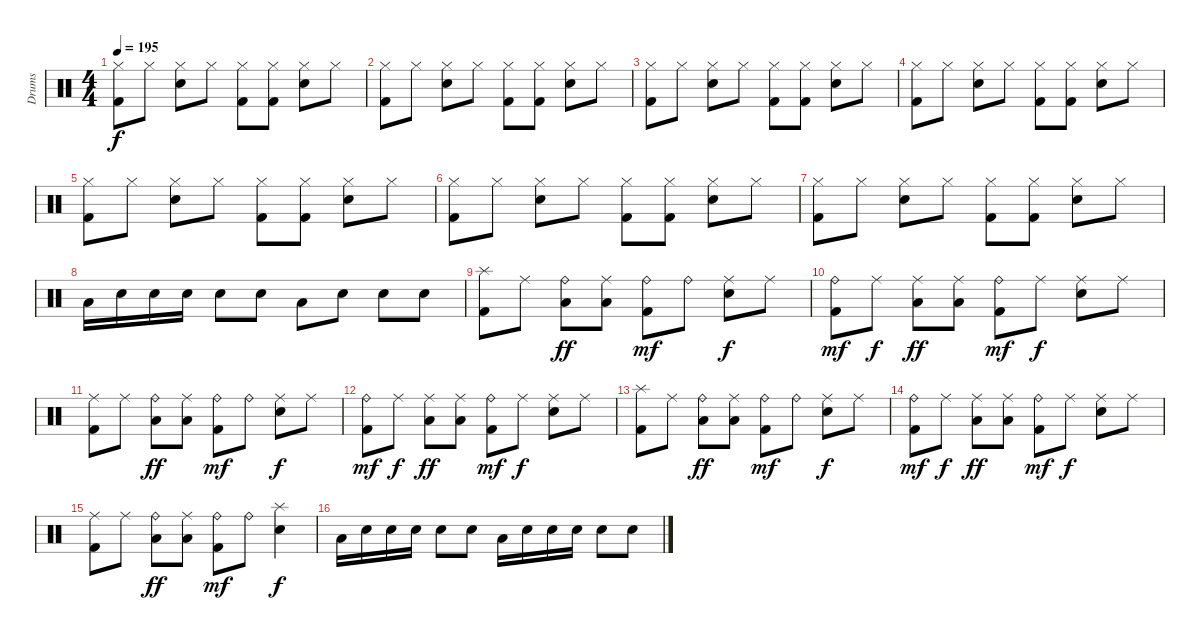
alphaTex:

\track ("Drums" "Drums") {instrument percussion}
\staff {score}
\articulation defaults
\ts (4 4)
\tempo 195
\clef neutral
\ks c
("Hi-Hat (closed)" "Kick (hit) 2").8{dy f} "Hi-Hat (closed)".8 ("Hi-Hat (closed)" "Snare (hit) 2").8 "Hi-Hat (closed)".8 ("Hi-Hat (closed)" "Kick (hit) 2").8 ("Hi-Hat (closed)" "Kick (hit) 2").8 ("Hi-Hat (closed)" "Snare (hit) 2").8 "Hi-Hat (closed)".8 |
("Hi-Hat (closed)" "Kick (hit) 2").8 "Hi-Hat (closed)".8 ("Hi-Hat (closed)" "Snare (hit) 2").8 "Hi-Hat (closed)".8 ("Hi-Hat (closed)" "Kick (hit) 2").8 ("Hi-Hat (closed)" "Kick (hit) 2").8 ("Hi-Hat (closed)" "Snare (hit) 2").8 "Hi-Hat (closed)".8 |
("Hi-Hat (closed)" "Kick (hit) 2").8 "Hi-Hat (closed)".8 ("Hi-Hat (closed)" "Snare (hit) 2").8 "Hi-Hat (closed)".8 ("Hi-Hat (closed)" "Kick (hit) 2").8 ("Hi-Hat (closed)" "Kick (hit) 2").8 ("Hi-Hat (closed)" "Snare (hit) 2").8 "Hi-Hat (closed)".8 |
("Hi-Hat (closed)" "Kick (hit) 2").8 "Hi-Hat (closed)".8 ("Hi-Hat (closed)" "Snare (hit) 2").8 "Hi-Hat (closed)".8 ("Hi-Hat (closed)" "Kick (hit) 2").8 ("Hi-Hat (closed)" "Kick (hit) 2").8 ("Hi-Hat (closed)" "Snare (hit) 2").8 "Hi-Hat (closed)".8 |
("Hi-Hat (closed)" "Kick (hit) 2").8 "Hi-Hat (closed)".8 ("Hi-Hat (closed)" "Snare (hit) 2").8 "Hi-Hat (closed)".8 ("Hi-Hat (closed)" "Kick (hit) 2").8 ("Hi-Hat (closed)" "Kick (hit) 2").8 ("Hi-Hat (closed)" "Snare (hit) 2").8 "Hi-Hat (closed)".8 |
("Hi-Hat (closed)" "Kick (hit) 2").8 "Hi-Hat (closed)".8 ("Hi-Hat (closed)" "Snare (hit) 2").8 "Hi-Hat (closed)".8 ("Hi-Hat (closed)" "Kick (hit) 2").8 ("Hi-Hat (closed)" "Kick (hit) 2").8 ("Hi-Hat (closed)" "Snare (hit) 2").8 "Hi-Hat (closed)".8 |
("Hi-Hat (closed)" "Kick (hit) 2").8 "Hi-Hat (closed)".8 ("Hi-Hat (closed)" "Snare (hit) 2").8 "Hi-Hat (closed)".8 ("Hi-Hat (closed)" "Kick (hit) 2").8 ("Hi-Hat (closed)" "Kick (hit) 2").8 ("Hi-Hat (closed)" "Snare (hit) 2").8 "Hi-Hat (closed)".8 |
"Low Tom (hit)".16 "Snare (hit) 2".16 "Snare (hit) 2".16 "Snare (hit) 2".16 "Snare (hit) 2".8 "Snare (hit) 2".8 "Low Tom (hit)".8 "Snare (hit) 2".8 "Snare (hit) 2".8 "Snare (hit) 2".8 |
("Splash (hit)" "Kick (hit) 2").8 "Ride (middle)".8 ("Ride (bell)" "Low Tom (hit)").8{dy ff} ("Ride (middle)" "Low Tom (hit)").8 ("Ride (bell)" "Kick (hit) 2").8{dy mf} "Ride (bell)".8 ("Ride (middle)" "Snare (hit) 2").8{dy f} "Ride (middle)".8 |
("Ride (bell)" "Kick (hit) 2").8{dy mf} "Ride (middle)".8{dy f} ("Ride (middle)" "Low Tom (hit)").8{dy ff} ("Ride (middle)" "Low Tom (hit)").8 ("Ride (bell)" "Kick (hit) 2").8{dy mf} "Ride (middle)".8{dy f} ("Ride (middle)" "Snare (hit) 2").8 "Ride (middle)".8 |
("Ride (middle)" "Kick (hit) 2").8 "Ride (middle)".8 ("Ride (bell)" "Low Tom (hit)").8{dy ff} ("Ride (middle)" "Low Tom (hit)").8 ("Ride (bell)" "Kick (hit) 2").8{dy mf} "Ride (bell)".8 ("Ride (middle)" "Snare (hit) 2").8{dy f} "Ride (middle)".8 |
("Ride (bell)" "Kick (hit) 2").8{dy mf} "Ride (middle)".8{dy f} ("Ride (middle)" "Low Tom (hit)").8{dy ff} ("Ride (middle)" "Low Tom (hit)").8 ("Ride (bell)" "Kick (hit) 2").8{dy mf} "Ride (middle)".8{dy f} ("Ride (middle)" "Snare (hit) 2").8 "Ride (middle)".8 |
("Splash (hit)" "Kick (hit) 2").8 "Ride (middle)".8 ("Ride (bell)" "Low Tom (hit)").8{dy ff} ("Ride (middle)" "Low Tom (hit)").8 ("Ride (bell)" "Kick (hit) 2").8{dy mf} "Ride (bell)".8 ("Ride (middle)" "Snare (hit) 2").8{dy f} "Ride (middle)".8 |
("Ride (bell)" "Kick (hit) 2").8{dy mf} "Ride (middle)".8{dy f} ("Ride (middle)" "Low Tom (hit)").8{dy ff} ("Ride (middle)" "Low Tom (hit)").8 ("Ride (bell)" "Kick (hit) 2").8{dy mf} "Ride (middle)".8{dy f} ("Ride (middle)" "Snare (hit) 2").8 "Ride (middle)".8 |
("Ride (middle)" "Kick (hit) 2").8 "Ride (middle)".8 ("Ride (bell)" "Low Tom (hit)").8{dy ff} ("Ride (middle)" "Low Tom (hit)").8 ("Ride (bell)" "Kick (hit) 2").8{dy mf} "Ride (bell)".8 ("Splash (hit)" "Snare (hit) 2").4{dy f} |
"Low Tom (hit)".16 "Snare (hit) 2".16 "Snare (hit) 2".16 "Snare (hit) 2".16 "Snare (hit) 2".8 "Snare (hit) 2".8 "Low Tom (hit)".16 "Snare (hit) 2".16 "Snare (hit) 2".16 "Snare (hit) 2".16 "Snare (hit) 2".8 "Snare (hit) 2".8
